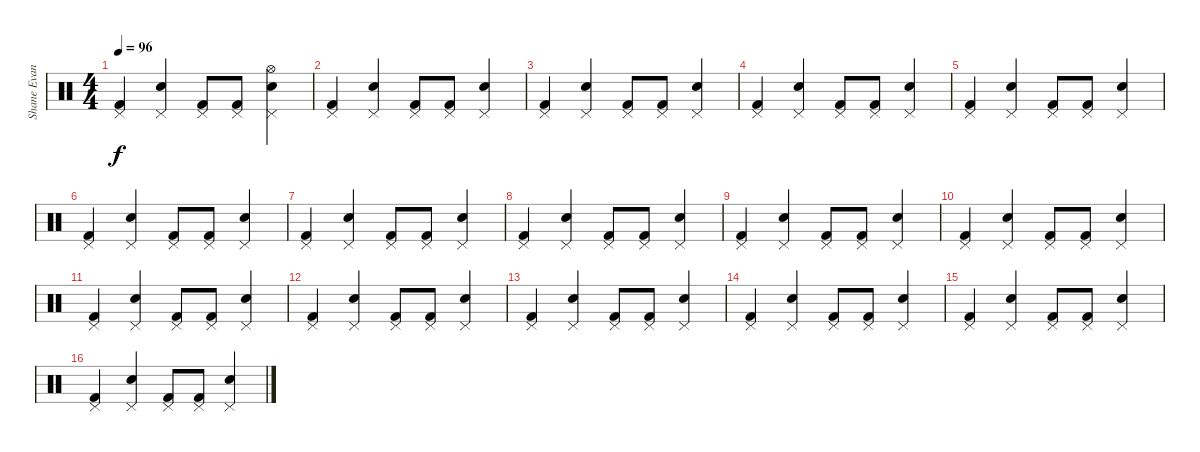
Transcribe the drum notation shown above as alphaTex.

\track ("Shane Evans" "Shane Evan") {instrument percussion}
\staff {score}
\articulation defaults
\ts (4 4)
\tempo 96
\clef neutral
\ks c
("Pedal Hi-Hat (hit)" "Kick (hit) 2").4{dy f} ("Pedal Hi-Hat (hit)" "Snare (hit) 2").4 ("Pedal Hi-Hat (hit)" "Kick (hit) 2").8 ("Pedal Hi-Hat (hit)" "Kick (hit) 2").8 ("Hi-Hat (open)" "Pedal Hi-Hat (hit)" "Snare (hit) 2").4 |
("Pedal Hi-Hat (hit)" "Kick (hit) 2").4 ("Pedal Hi-Hat (hit)" "Snare (hit) 2").4 ("Pedal Hi-Hat (hit)" "Kick (hit) 2").8 ("Pedal Hi-Hat (hit)" "Kick (hit) 2").8 ("Pedal Hi-Hat (hit)" "Snare (hit) 2").4 |
("Pedal Hi-Hat (hit)" "Kick (hit) 2").4 ("Pedal Hi-Hat (hit)" "Snare (hit) 2").4 ("Pedal Hi-Hat (hit)" "Kick (hit) 2").8 ("Pedal Hi-Hat (hit)" "Kick (hit) 2").8 ("Pedal Hi-Hat (hit)" "Snare (hit) 2").4 |
("Pedal Hi-Hat (hit)" "Kick (hit) 2").4 ("Pedal Hi-Hat (hit)" "Snare (hit) 2").4 ("Pedal Hi-Hat (hit)" "Kick (hit) 2").8 ("Pedal Hi-Hat (hit)" "Kick (hit) 2").8 ("Pedal Hi-Hat (hit)" "Snare (hit) 2").4 |
("Pedal Hi-Hat (hit)" "Kick (hit) 2").4 ("Pedal Hi-Hat (hit)" "Snare (hit) 2").4 ("Pedal Hi-Hat (hit)" "Kick (hit) 2").8 ("Pedal Hi-Hat (hit)" "Kick (hit) 2").8 ("Pedal Hi-Hat (hit)" "Snare (hit) 2").4 |
("Pedal Hi-Hat (hit)" "Kick (hit) 2").4 ("Pedal Hi-Hat (hit)" "Snare (hit) 2").4 ("Pedal Hi-Hat (hit)" "Kick (hit) 2").8 ("Pedal Hi-Hat (hit)" "Kick (hit) 2").8 ("Pedal Hi-Hat (hit)" "Snare (hit) 2").4 |
("Pedal Hi-Hat (hit)" "Kick (hit) 2").4 ("Pedal Hi-Hat (hit)" "Snare (hit) 2").4 ("Pedal Hi-Hat (hit)" "Kick (hit) 2").8 ("Pedal Hi-Hat (hit)" "Kick (hit) 2").8 ("Pedal Hi-Hat (hit)" "Snare (hit) 2").4 |
("Pedal Hi-Hat (hit)" "Kick (hit) 2").4 ("Pedal Hi-Hat (hit)" "Snare (hit) 2").4 ("Pedal Hi-Hat (hit)" "Kick (hit) 2").8 ("Pedal Hi-Hat (hit)" "Kick (hit) 2").8 ("Pedal Hi-Hat (hit)" "Snare (hit) 2").4 |
("Pedal Hi-Hat (hit)" "Kick (hit) 2").4 ("Pedal Hi-Hat (hit)" "Snare (hit) 2").4 ("Pedal Hi-Hat (hit)" "Kick (hit) 2").8 ("Pedal Hi-Hat (hit)" "Kick (hit) 2").8 ("Pedal Hi-Hat (hit)" "Snare (hit) 2").4 |
("Pedal Hi-Hat (hit)" "Kick (hit) 2").4 ("Pedal Hi-Hat (hit)" "Snare (hit) 2").4 ("Pedal Hi-Hat (hit)" "Kick (hit) 2").8 ("Pedal Hi-Hat (hit)" "Kick (hit) 2").8 ("Pedal Hi-Hat (hit)" "Snare (hit) 2").4 |
("Pedal Hi-Hat (hit)" "Kick (hit) 2").4 ("Pedal Hi-Hat (hit)" "Snare (hit) 2").4 ("Pedal Hi-Hat (hit)" "Kick (hit) 2").8 ("Pedal Hi-Hat (hit)" "Kick (hit) 2").8 ("Pedal Hi-Hat (hit)" "Snare (hit) 2").4 |
("Pedal Hi-Hat (hit)" "Kick (hit) 2").4 ("Pedal Hi-Hat (hit)" "Snare (hit) 2").4 ("Pedal Hi-Hat (hit)" "Kick (hit) 2").8 ("Pedal Hi-Hat (hit)" "Kick (hit) 2").8 ("Pedal Hi-Hat (hit)" "Snare (hit) 2").4 |
("Pedal Hi-Hat (hit)" "Kick (hit) 2").4 ("Pedal Hi-Hat (hit)" "Snare (hit) 2").4 ("Pedal Hi-Hat (hit)" "Kick (hit) 2").8 ("Pedal Hi-Hat (hit)" "Kick (hit) 2").8 ("Pedal Hi-Hat (hit)" "Snare (hit) 2").4 |
("Pedal Hi-Hat (hit)" "Kick (hit) 2").4 ("Pedal Hi-Hat (hit)" "Snare (hit) 2").4 ("Pedal Hi-Hat (hit)" "Kick (hit) 2").8 ("Pedal Hi-Hat (hit)" "Kick (hit) 2").8 ("Pedal Hi-Hat (hit)" "Snare (hit) 2").4 |
("Pedal Hi-Hat (hit)" "Kick (hit) 2").4 ("Pedal Hi-Hat (hit)" "Snare (hit) 2").4 ("Pedal Hi-Hat (hit)" "Kick (hit) 2").8 ("Pedal Hi-Hat (hit)" "Kick (hit) 2").8 ("Pedal Hi-Hat (hit)" "Snare (hit) 2").4 |
("Pedal Hi-Hat (hit)" "Kick (hit) 2").4 ("Pedal Hi-Hat (hit)" "Snare (hit) 2").4 ("Pedal Hi-Hat (hit)" "Kick (hit) 2").8 ("Pedal Hi-Hat (hit)" "Kick (hit) 2").8 ("Pedal Hi-Hat (hit)" "Snare (hit) 2").4
